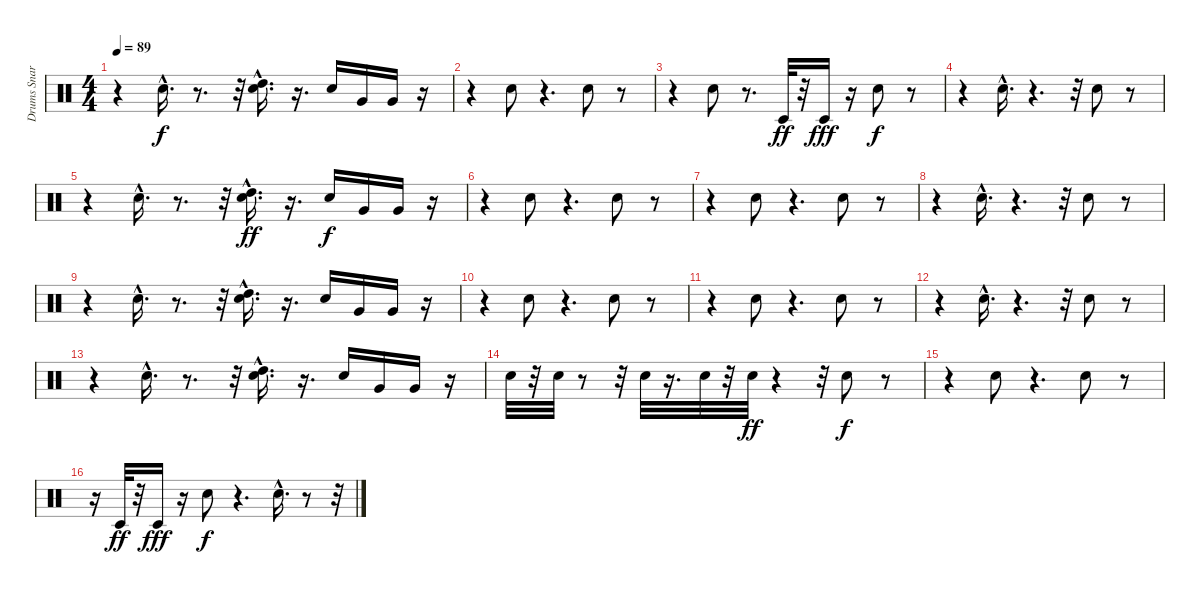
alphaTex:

\track ("Drums Snare" "Drums Snar") {instrument percussion}
\staff {score}
\articulation defaults
\ts (4 4)
\tempo 89
\clef neutral
\ks c
r.4{dy f} "Snare (hit) 2"{hac}.16{d} r.8{d} r.32 ("Snare (hit) 2"{hac} "High Tom (hit)").16{d} r.16{d} "Snare (hit) 2".16 "Very Low Tom (hit)".16 "Very Low Tom (hit)".16 r.16 |
r.4 "Snare (hit) 2".8 r.4{d} "Snare (hit) 2".8 r.8 |
r.4 "Snare (hit) 2".8 r.8{d} "Timbale low (hit)".32{dy ff} r.32 "Timbale low (hit)".16{dy fff} r.16 "Snare (hit) 2".8{dy f} r.8 |
r.4 "Snare (hit) 2"{hac}.16{d} r.4{d} r.32 "Snare (hit) 2".8 r.8 |
r.4 "Snare (hit) 2"{hac}.16{d} r.8{d} r.32 ("Snare (hit) 2"{hac} "High Tom (hit)").16{d dy ff} r.16{d} "Snare (hit) 2".16{dy f} "Very Low Tom (hit)".16 "Very Low Tom (hit)".16 r.16 |
r.4 "Snare (hit) 2".8 r.4{d} "Snare (hit) 2".8 r.8 |
r.4 "Snare (hit) 2".8 r.4{d} "Snare (hit) 2".8 r.8 |
r.4 "Snare (hit) 2"{hac}.16{d} r.4{d} r.32 "Snare (hit) 2".8 r.8 |
r.4 "Snare (hit) 2"{hac}.16{d} r.8{d} r.32 ("Snare (hit) 2"{hac} "High Tom (hit)").16{d} r.16{d} "Snare (hit) 2".16 "Very Low Tom (hit)".16 "Very Low Tom (hit)".16 r.16 |
r.4 "Snare (hit) 2".8 r.4{d} "Snare (hit) 2".8 r.8 |
r.4 "Snare (hit) 2".8 r.4{d} "Snare (hit) 2".8 r.8 |
r.4 "Snare (hit) 2"{hac}.16{d} r.4{d} r.32 "Snare (hit) 2".8 r.8 |
r.4 "Snare (hit) 2"{hac}.16{d} r.8{d} r.32 ("Snare (hit) 2"{hac} "High Tom (hit)").16{d} r.16{d} "Snare (hit) 2".16 "Very Low Tom (hit)".16 "Very Low Tom (hit)".16 r.16 |
"Snare (hit) 2".32 r.32 "Snare (hit) 2".32 r.8 r.32 "Snare (hit) 2".32 r.16{d} "Snare (hit) 2".32 r.32 "Snare (hit) 2".32{dy ff} r.4 r.32 "Snare (hit) 2".8{dy f} r.8 |
r.4 "Snare (hit) 2".8 r.4{d} "Snare (hit) 2".8 r.8 |
r.16 "Timbale low (hit)".32{dy ff} r.32 "Timbale low (hit)".16{dy fff} r.16 "Snare (hit) 2".8{dy f} r.4{d} "Snare (hit) 2"{hac}.16{d} r.8 r.32
